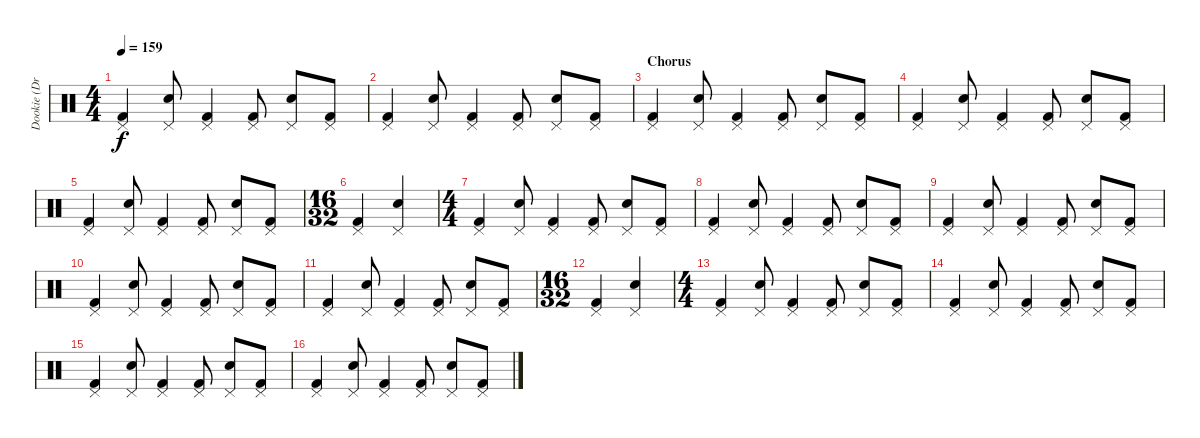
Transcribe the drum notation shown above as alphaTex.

\track ("Dookie (Drums)" "Dookie (Dr") {instrument percussion}
\staff {score}
\articulation defaults
\ts (4 4)
\tempo 159
\clef neutral
\ks c
("Kick (hit) 2" "Pedal Hi-Hat (hit)").4{dy f} ("Electric Snare (hit)" "Pedal Hi-Hat (hit)").8 ("Kick (hit) 2" "Pedal Hi-Hat (hit)").4 ("Kick (hit) 2" "Pedal Hi-Hat (hit)").8 ("Electric Snare (hit)" "Pedal Hi-Hat (hit)").8 ("Kick (hit) 2" "Pedal Hi-Hat (hit)").8 |
("Kick (hit) 2" "Pedal Hi-Hat (hit)").4 ("Electric Snare (hit)" "Pedal Hi-Hat (hit)").8 ("Kick (hit) 2" "Pedal Hi-Hat (hit)").4 ("Kick (hit) 2" "Pedal Hi-Hat (hit)").8 ("Electric Snare (hit)" "Pedal Hi-Hat (hit)").8 ("Kick (hit) 2" "Pedal Hi-Hat (hit)").8 |
\section ("" "Chorus")
("Kick (hit) 2" "Pedal Hi-Hat (hit)").4 ("Electric Snare (hit)" "Pedal Hi-Hat (hit)").8 ("Kick (hit) 2" "Pedal Hi-Hat (hit)").4 ("Kick (hit) 2" "Pedal Hi-Hat (hit)").8 ("Electric Snare (hit)" "Pedal Hi-Hat (hit)").8 ("Kick (hit) 2" "Pedal Hi-Hat (hit)").8 |
("Kick (hit) 2" "Pedal Hi-Hat (hit)").4 ("Electric Snare (hit)" "Pedal Hi-Hat (hit)").8 ("Kick (hit) 2" "Pedal Hi-Hat (hit)").4 ("Kick (hit) 2" "Pedal Hi-Hat (hit)").8 ("Electric Snare (hit)" "Pedal Hi-Hat (hit)").8 ("Kick (hit) 2" "Pedal Hi-Hat (hit)").8 |
("Kick (hit) 2" "Pedal Hi-Hat (hit)").4 ("Electric Snare (hit)" "Pedal Hi-Hat (hit)").8 ("Kick (hit) 2" "Pedal Hi-Hat (hit)").4 ("Kick (hit) 2" "Pedal Hi-Hat (hit)").8 ("Electric Snare (hit)" "Pedal Hi-Hat (hit)").8 ("Kick (hit) 2" "Pedal Hi-Hat (hit)").8 |
\ts (16 32)
("Kick (hit) 2" "Pedal Hi-Hat (hit)").4 ("Electric Snare (hit)" "Pedal Hi-Hat (hit)").4 |
\ts (4 4)
("Kick (hit) 2" "Pedal Hi-Hat (hit)").4 ("Electric Snare (hit)" "Pedal Hi-Hat (hit)").8 ("Kick (hit) 2" "Pedal Hi-Hat (hit)").4 ("Kick (hit) 2" "Pedal Hi-Hat (hit)").8 ("Electric Snare (hit)" "Pedal Hi-Hat (hit)").8 ("Kick (hit) 2" "Pedal Hi-Hat (hit)").8 |
("Kick (hit) 2" "Pedal Hi-Hat (hit)").4 ("Electric Snare (hit)" "Pedal Hi-Hat (hit)").8 ("Kick (hit) 2" "Pedal Hi-Hat (hit)").4 ("Kick (hit) 2" "Pedal Hi-Hat (hit)").8 ("Electric Snare (hit)" "Pedal Hi-Hat (hit)").8 ("Kick (hit) 2" "Pedal Hi-Hat (hit)").8 |
("Kick (hit) 2" "Pedal Hi-Hat (hit)").4 ("Electric Snare (hit)" "Pedal Hi-Hat (hit)").8 ("Kick (hit) 2" "Pedal Hi-Hat (hit)").4 ("Kick (hit) 2" "Pedal Hi-Hat (hit)").8 ("Electric Snare (hit)" "Pedal Hi-Hat (hit)").8 ("Kick (hit) 2" "Pedal Hi-Hat (hit)").8 |
("Kick (hit) 2" "Pedal Hi-Hat (hit)").4 ("Electric Snare (hit)" "Pedal Hi-Hat (hit)").8 ("Kick (hit) 2" "Pedal Hi-Hat (hit)").4 ("Kick (hit) 2" "Pedal Hi-Hat (hit)").8 ("Electric Snare (hit)" "Pedal Hi-Hat (hit)").8 ("Kick (hit) 2" "Pedal Hi-Hat (hit)").8 |
("Kick (hit) 2" "Pedal Hi-Hat (hit)").4 ("Electric Snare (hit)" "Pedal Hi-Hat (hit)").8 ("Kick (hit) 2" "Pedal Hi-Hat (hit)").4 ("Kick (hit) 2" "Pedal Hi-Hat (hit)").8 ("Electric Snare (hit)" "Pedal Hi-Hat (hit)").8 ("Kick (hit) 2" "Pedal Hi-Hat (hit)").8 |
\ts (16 32)
("Kick (hit) 2" "Pedal Hi-Hat (hit)").4 ("Electric Snare (hit)" "Pedal Hi-Hat (hit)").4 |
\ts (4 4)
("Kick (hit) 2" "Pedal Hi-Hat (hit)").4 ("Electric Snare (hit)" "Pedal Hi-Hat (hit)").8 ("Kick (hit) 2" "Pedal Hi-Hat (hit)").4 ("Kick (hit) 2" "Pedal Hi-Hat (hit)").8 ("Electric Snare (hit)" "Pedal Hi-Hat (hit)").8 ("Kick (hit) 2" "Pedal Hi-Hat (hit)").8 |
("Kick (hit) 2" "Pedal Hi-Hat (hit)").4 ("Electric Snare (hit)" "Pedal Hi-Hat (hit)").8 ("Kick (hit) 2" "Pedal Hi-Hat (hit)").4 ("Kick (hit) 2" "Pedal Hi-Hat (hit)").8 ("Electric Snare (hit)" "Pedal Hi-Hat (hit)").8 ("Kick (hit) 2" "Pedal Hi-Hat (hit)").8 |
("Kick (hit) 2" "Pedal Hi-Hat (hit)").4 ("Electric Snare (hit)" "Pedal Hi-Hat (hit)").8 ("Kick (hit) 2" "Pedal Hi-Hat (hit)").4 ("Kick (hit) 2" "Pedal Hi-Hat (hit)").8 ("Electric Snare (hit)" "Pedal Hi-Hat (hit)").8 ("Kick (hit) 2" "Pedal Hi-Hat (hit)").8 |
("Kick (hit) 2" "Pedal Hi-Hat (hit)").4 ("Electric Snare (hit)" "Pedal Hi-Hat (hit)").8 ("Kick (hit) 2" "Pedal Hi-Hat (hit)").4 ("Kick (hit) 2" "Pedal Hi-Hat (hit)").8 ("Electric Snare (hit)" "Pedal Hi-Hat (hit)").8 ("Kick (hit) 2" "Pedal Hi-Hat (hit)").8
